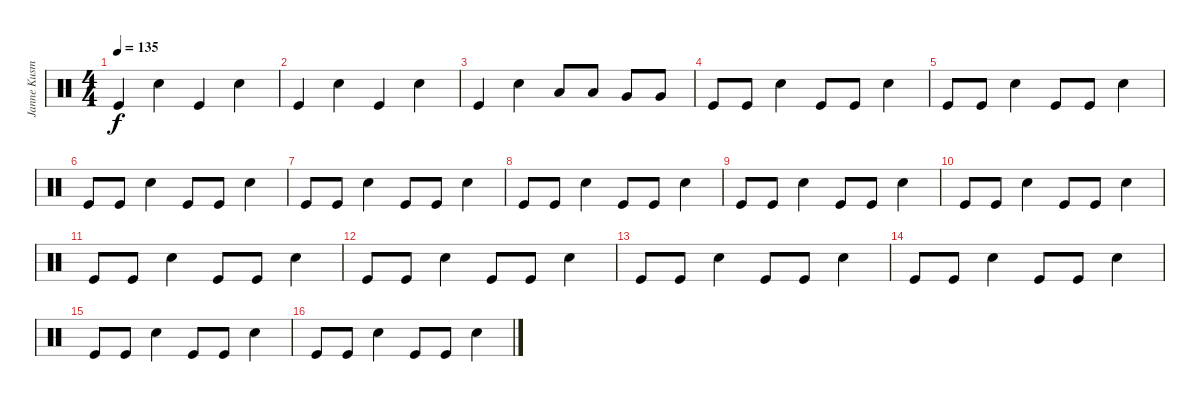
\track ("Janne Kusmin" "Janne Kusm") {instrument percussion}
\staff {score}
\articulation defaults
\ts (4 4)
\tempo 135
\clef neutral
\ks c "Kick (hit)".4{dy f} "Electric Snare (hit)".4 "Kick (hit)".4 "Electric Snare (hit)".4
|
"Kick (hit)".4 "Electric Snare (hit)".4 "Kick (hit)".4 "Electric Snare (hit)".4 |
"Kick (hit)".4 "Electric Snare (hit)".4 "Low Tom (hit)".8 "Low Tom (hit)".8 "Very Low Tom (hit)".8 "Very Low Tom (hit)".8 |
"Kick (hit)".8 "Kick (hit)".8 "Snare (hit) 2".4 "Kick (hit)".8 "Kick (hit)".8 "Snare (hit) 2".4 |
"Kick (hit)".8 "Kick (hit)".8 "Snare (hit) 2".4 "Kick (hit)".8 "Kick (hit)".8 "Snare (hit) 2".4 |
"Kick (hit)".8 "Kick (hit)".8 "Snare (hit) 2".4 "Kick (hit)".8 "Kick (hit)".8 "Snare (hit) 2".4 |
"Kick (hit)".8 "Kick (hit)".8 "Snare (hit) 2".4 "Kick (hit)".8 "Kick (hit)".8 "Snare (hit) 2".4 |
"Kick (hit)".8 "Kick (hit)".8 "Snare (hit) 2".4 "Kick (hit)".8 "Kick (hit)".8 "Snare (hit) 2".4 |
"Kick (hit)".8 "Kick (hit)".8 "Snare (hit) 2".4 "Kick (hit)".8 "Kick (hit)".8 "Snare (hit) 2".4 |
"Kick (hit)".8 "Kick (hit)".8 "Snare (hit) 2".4 "Kick (hit)".8 "Kick (hit)".8 "Snare (hit) 2".4 |
"Kick (hit)".8 "Kick (hit)".8 "Snare (hit) 2".4 "Kick (hit)".8 "Kick (hit)".8 "Snare (hit) 2".4 |
"Kick (hit)".8 "Kick (hit)".8 "Snare (hit) 2".4 "Kick (hit)".8 "Kick (hit)".8 "Snare (hit) 2".4 |
"Kick (hit)".8 "Kick (hit)".8 "Snare (hit) 2".4 "Kick (hit)".8 "Kick (hit)".8 "Snare (hit) 2".4 |
"Kick (hit)".8 "Kick (hit)".8 "Snare (hit) 2".4 "Kick (hit)".8 "Kick (hit)".8 "Snare (hit) 2".4 |
"Kick (hit)".8 "Kick (hit)".8 "Snare (hit) 2".4 "Kick (hit)".8 "Kick (hit)".8 "Snare (hit) 2".4 |
"Kick (hit)".8 "Kick (hit)".8 "Snare (hit) 2".4 "Kick (hit)".8 "Kick (hit)".8 "Snare (hit) 2".4
